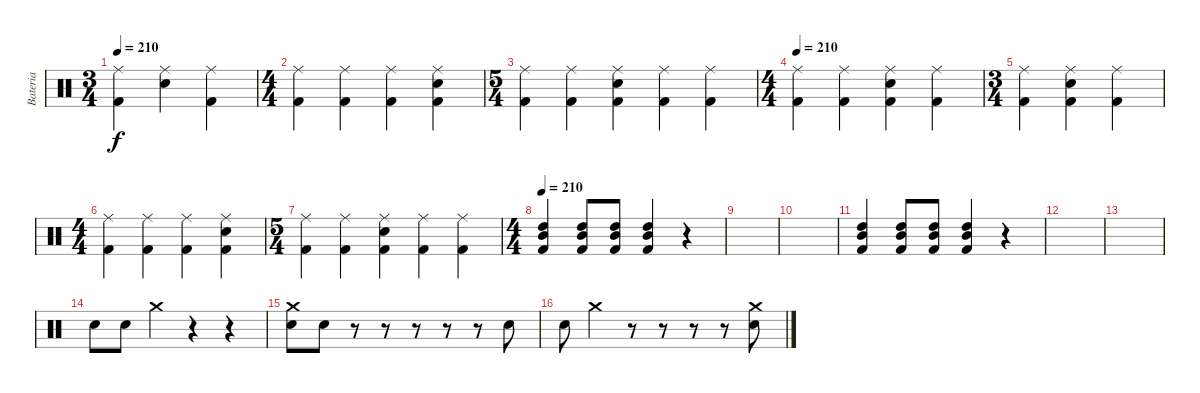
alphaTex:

\track ("Bateria" "Bateria") {instrument percussion}
\staff {score}
\articulation defaults
\ts (3 4)
\tempo 210
\clef neutral
\ks c
("Ride (middle)" "Kick (hit) 2").4{dy f} ("Ride (middle)" "Electric Snare (hit)").4 ("Ride (middle)" "Kick (hit) 2").4 |
\ts (4 4)
("Ride (middle)" "Kick (hit) 2").4 ("Ride (middle)" "Kick (hit) 2").4 ("Ride (middle)" "Kick (hit) 2").4 ("Ride (middle)" "Electric Snare (hit)" "Kick (hit) 2").4 |
\ts (5 4)
("Ride (middle)" "Kick (hit) 2").4 ("Ride (middle)" "Kick (hit) 2").4 ("Ride (middle)" "Electric Snare (hit)" "Kick (hit) 2").4 ("Ride (middle)" "Kick (hit) 2").4 ("Ride (middle)" "Kick (hit) 2").4 |
\ts (4 4)
\tempo 210
("Ride (middle)" "Kick (hit) 2").4 ("Ride (middle)" "Kick (hit) 2").4 ("Ride (middle)" "Electric Snare (hit)" "Kick (hit) 2").4 ("Ride (middle)" "Kick (hit) 2").4 |
\ts (3 4)
("Ride (middle)" "Kick (hit) 2").4 ("Ride (middle)" "Electric Snare (hit)" "Kick (hit) 2").4 ("Ride (middle)" "Kick (hit) 2").4 |
\ts (4 4)
("Ride (middle)" "Kick (hit) 2").4 ("Ride (middle)" "Kick (hit) 2").4 ("Ride (middle)" "Kick (hit) 2").4 ("Ride (middle)" "Electric Snare (hit)" "Kick (hit) 2").4 |
\ts (5 4)
("Ride (middle)" "Kick (hit) 2").4 ("Ride (middle)" "Kick (hit) 2").4 ("Ride (middle)" "Electric Snare (hit)" "Kick (hit) 2").4 ("Ride (middle)" "Kick (hit) 2").4 ("Ride (middle)" "Kick (hit) 2").4 |
\ts (4 4)
\tempo 210
("High Tom (hit)" "Mid Tom (hit)" "Kick (hit) 2").4 ("High Tom (hit)" "Mid Tom (hit)" "Kick (hit) 2").8 ("High Tom (hit)" "Mid Tom (hit)" "Kick (hit) 2").8 ("High Tom (hit)" "Mid Tom (hit)" "Kick (hit) 2").4 r.4 |
|
|
("High Tom (hit)" "Mid Tom (hit)" "Kick (hit) 2").4 ("High Tom (hit)" "Mid Tom (hit)" "Kick (hit) 2").8 ("High Tom (hit)" "Mid Tom (hit)" "Kick (hit) 2").8 ("High Tom (hit)" "Mid Tom (hit)" "Kick (hit) 2").4 r.4 |
|
|
"Electric Snare (hit)".8 "Electric Snare (hit)".8 "Crash medium (hit)".4 r.4 r.4 |
("Crash medium (hit)" "Electric Snare (hit)").8 "Electric Snare (hit)".8 r.8 r.8 r.8 r.8 r.8 "Electric Snare (hit)".8 |
"Electric Snare (hit)".8 "Crash medium (hit)".4 r.8 r.8 r.8 r.8 ("Crash medium (hit)" "Electric Snare (hit)").8
